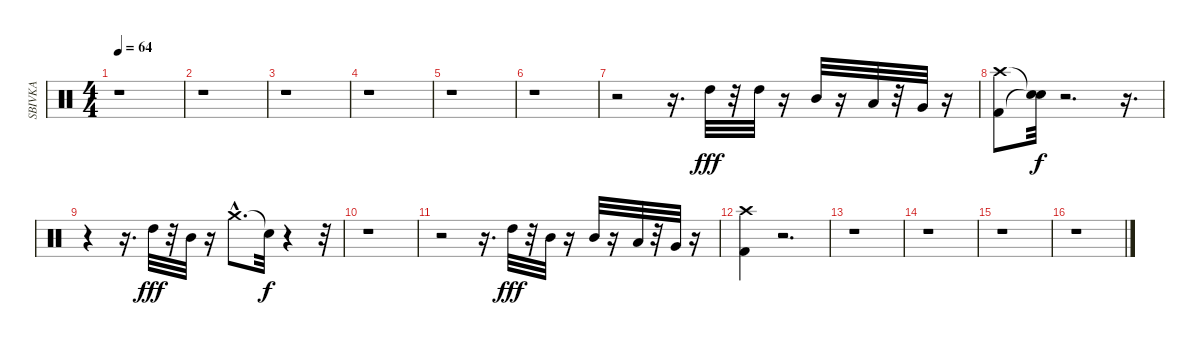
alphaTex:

\track ("SBIVKA" "SBIVKA") {instrument percussion}
\staff {score}
\articulation defaults
\ts (4 4)
\tempo 64
\clef neutral
\ks c
r.1{dy fff} |
r.1 |
r.1 |
r.1 |
r.1 |
r.1 |
r.2 r.16{d} "High Tom (hit)".32 r.32 "High Tom (hit)".32 r.16 "Mid Tom (hit)".32 r.16 "Low Tom (hit)".32 r.32 "Very Low Tom (hit)".32 r.16 |
("Crash high (hit)" "Kick (hit) 2").8 ("Snare (hit)"{t} "Snare (hit)"{t}).32{dy f} r.2{d} r.16{d} |
r.4 r.16{d} "High Tom (hit)".32{dy fff} r.32 "Mid Tom (hit)".32 r.16 "Crash medium (hit)"{hac}.8{d} "Snare (hit)"{t}.32{dy f} r.4 r.32 |
r.1 |
r.2 r.16{d} "High Tom (hit)".32{dy fff} r.32 "Mid Tom (hit)".32 r.16 "Mid Tom (hit)".32 r.16 "Low Tom (hit)".32 r.32 "Very Low Tom (hit)".32 r.16 |
("Kick (hit) 2" "Crash high (hit)").4 r.2{d} |
r.1 |
r.1 |
r.1 |
r.1
